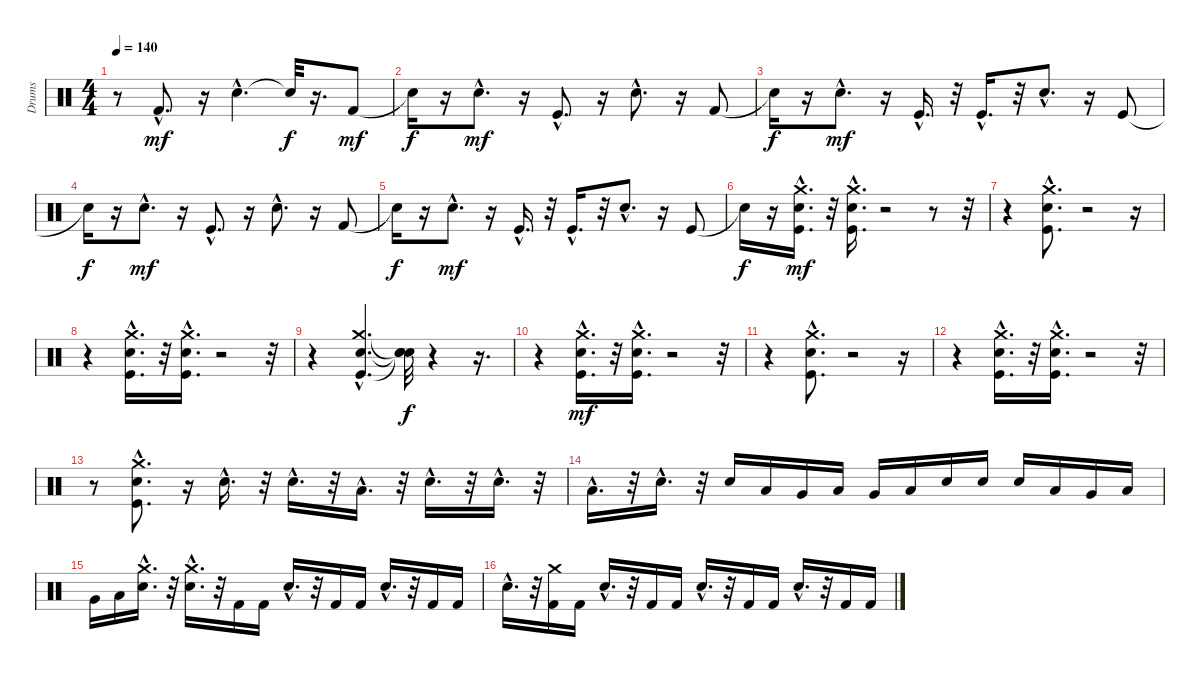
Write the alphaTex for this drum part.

\track ("Drums" "Drums") {instrument percussion}
\staff {score}
\articulation defaults
\ts (4 4)
\tempo 140
\clef neutral
\ks c
r.8{dy f} "Kick (hit) 2"{hac}.8{d dy mf} r.16 "Snare (hit) 2"{hac}.4{d} "Snare (hit)"{t}.32{dy f} r.16{d} "Kick (hit) 2".8{dy mf} |
"Snare (hit)"{t}.16{dy f} r.16 "Snare (hit) 2"{hac}.8{d dy mf} r.16 "Kick (hit)"{hac}.8{d} r.16 "Snare (hit) 2"{hac}.8{d} r.16 "Kick (hit) 2".8 |
"Snare (hit)"{t}.16{dy f} r.16 "Snare (hit) 2"{hac}.8{d dy mf} r.16 "Kick (hit)"{hac}.16{d} r.32 "Kick (hit)"{hac}.16{d} r.32 "Snare (hit) 2"{hac}.8{d} r.16 "Kick (hit)".8 |
"Snare (hit)"{t}.16{dy f} r.16 "Snare (hit) 2"{hac}.8{d dy mf} r.16 "Kick (hit)"{hac}.8{d} r.16 "Snare (hit) 2"{hac}.8{d} r.16 "Kick (hit) 2".8 |
"Snare (hit)"{t}.16{dy f} r.16 "Snare (hit) 2"{hac}.8{d dy mf} r.16 "Kick (hit)"{hac}.16{d} r.32 "Kick (hit)"{hac}.16{d} r.32 "Snare (hit) 2"{hac}.8{d} r.16 "Kick (hit)".8 |
"Snare (hit)"{t}.16{dy f} r.16 ("Crash medium (hit)"{hac} "Kick (hit)"{hac} "Snare (hit) 2"{hac}).16{d dy mf} r.32 ("Crash medium (hit)"{hac} "Kick (hit)"{hac} "Snare (hit) 2"{hac}).16{d} r.2 r.8 r.32 |
r.4 ("Snare (hit) 2"{hac} "Crash medium (hit)"{hac} "Kick (hit)"{hac}).8{d} r.2 r.16 |
r.4 ("Crash medium (hit)"{hac} "Kick (hit)"{hac} "Snare (hit) 2"{hac}).16{d} r.32 ("Snare (hit) 2"{hac} "Crash medium (hit)"{hac} "Kick (hit)"{hac}).16{d} r.2 r.32 |
r.4 ("Kick (hit)"{hac} "Crash medium (hit)"{hac} "Electric Snare (hit)"{hac}).4{d} ("Snare (hit)"{t} "Snare (hit)"{t} "Snare (hit)"{t}).32{dy f} r.4 r.16{d} |
r.4 ("Snare (hit) 2"{hac} "Crash medium (hit)"{hac} "Kick (hit)"{hac}).16{d dy mf} r.32 ("Kick (hit)"{hac} "Crash medium (hit)"{hac} "Snare (hit) 2"{hac}).16{d} r.2 r.32 |
r.4 ("Snare (hit) 2"{hac} "Kick (hit)"{hac} "Crash medium (hit)"{hac}).8{d} r.2 r.16 |
r.4 ("Crash medium (hit)"{hac} "Snare (hit) 2"{hac} "Kick (hit)"{hac}).16{d} r.32 ("Kick (hit)"{hac} "Snare (hit) 2"{hac} "Crash medium (hit)"{hac}).16{d} r.2 r.32 |
r.8 ("Kick (hit)"{hac} "Crash medium (hit)"{hac} "Snare (hit) 2"{hac}).8{d} r.16 "Snare (hit) 2"{hac}.16{d} r.32 "Electric Snare (hit)"{hac}.16{d} r.32 "Low Floor Tom (hit)"{hac}.16{d} r.32 "Snare (hit) 2"{hac}.16{d} r.32 "Electric Snare (hit)"{hac}.16{d} r.32 |
"Low Floor Tom (hit)"{hac}.16{d} r.32 "Snare (hit) 2"{hac}.16{d} r.32 "Electric Snare (hit)".16 "Low Floor Tom (hit)".16 "Very Low Tom (hit)".16 "Low Tom (hit)".16 "Very Low Tom (hit)".16 "Low Floor Tom (hit)".16 "Electric Snare (hit)".16 "Snare (hit) 2".16 "Electric Snare (hit)".16 "Low Floor Tom (hit)".16 "Very Low Tom (hit)".16 "Low Tom (hit)".16 |
"Very Low Tom (hit)".16 "Low Floor Tom (hit)".16 ("Crash medium (hit)"{hac} "Electric Snare (hit)"{hac}).16{d} r.32 ("Crash medium (hit)"{hac} "Electric Snare (hit)"{hac}).16{d} r.32 "Kick (hit) 2".16 "Kick (hit) 2".16 "Electric Snare (hit)"{hac}.16{d} r.32 "Kick (hit) 2".16 "Kick (hit) 2".16 "Electric Snare (hit)"{hac}.16{d} r.32 "Kick (hit) 2".16 "Kick (hit) 2".16 |
"Electric Snare (hit)"{hac}.16{d} r.32 ("Crash medium (hit)" "Kick (hit) 2").16 "Kick (hit) 2".16 "Electric Snare (hit)"{hac}.16{d} r.32 "Kick (hit) 2".16 "Kick (hit) 2".16 "Electric Snare (hit)"{hac}.16{d} r.32 "Kick (hit) 2".16 "Kick (hit) 2".16 "Electric Snare (hit)"{hac}.16{d} r.32 "Kick (hit) 2".16 "Kick (hit) 2".16
